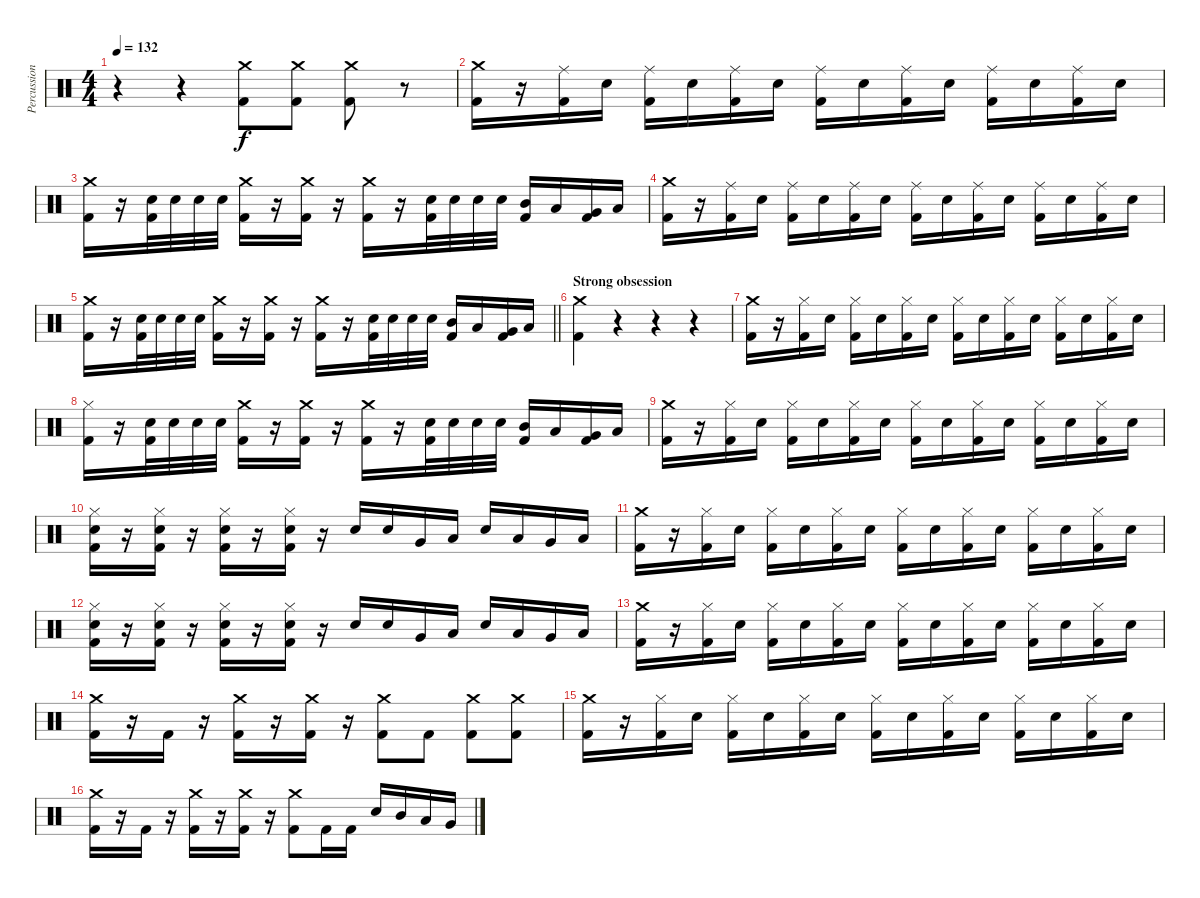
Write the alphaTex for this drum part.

\track ("Percussion" "Percussion") {instrument percussion}
\staff {score}
\articulation defaults
\ts (4 4)
\tempo 132
\clef neutral
\ks c
r.4{dy f} r.4 ("Crash medium (hit)" "Kick (hit) 2").8 ("Crash medium (hit)" "Kick (hit) 2").8 ("Crash medium (hit)" "Kick (hit) 2").8 r.8 |
("Crash medium (hit)" "Kick (hit) 2").16 r.16 ("Ride (middle)" "Kick (hit) 2").16 "Snare (hit) 2".16 ("Ride (middle)" "Kick (hit) 2").16 "Snare (hit) 2".16 ("Ride (middle)" "Kick (hit) 2").16 "Snare (hit) 2".16 ("Ride (middle)" "Kick (hit) 2").16 "Snare (hit) 2".16 ("Ride (middle)" "Kick (hit) 2").16 "Snare (hit) 2".16 ("Ride (middle)" "Kick (hit) 2").16 "Snare (hit) 2".16 ("Ride (middle)" "Kick (hit) 2").16 "Snare (hit) 2".16 |
("Crash medium (hit)" "Kick (hit) 2").16 r.16 ("Snare (hit) 2" "Kick (hit) 2").32 "Snare (hit) 2".32 "Snare (hit) 2".32 "Snare (hit) 2".32 ("Crash medium (hit)" "Kick (hit) 2").16 r.16 ("Crash medium (hit)" "Kick (hit) 2").16 r.16 ("Crash medium (hit)" "Kick (hit) 2").16 r.16 ("Snare (hit) 2" "Kick (hit) 2").32 "Snare (hit) 2".32 "Snare (hit) 2".32 "Snare (hit) 2".32 ("Mid Tom (hit)" "Kick (hit) 2").16 "Low Tom (hit)".16 ("Very Low Tom (hit)" "Kick (hit) 2").16 "Low Floor Tom (hit)".16 |
("Crash medium (hit)" "Kick (hit) 2").16 r.16 ("Ride (middle)" "Kick (hit) 2").16 "Snare (hit) 2".16 ("Ride (middle)" "Kick (hit) 2").16 "Snare (hit) 2".16 ("Ride (middle)" "Kick (hit) 2").16 "Snare (hit) 2".16 ("Ride (middle)" "Kick (hit) 2").16 "Snare (hit) 2".16 ("Ride (middle)" "Kick (hit) 2").16 "Snare (hit) 2".16 ("Ride (middle)" "Kick (hit) 2").16 "Snare (hit) 2".16 ("Ride (middle)" "Kick (hit) 2").16 "Snare (hit) 2".16 |
\barLineRight lightlight
("Crash medium (hit)" "Kick (hit) 2").16 r.16 ("Snare (hit) 2" "Kick (hit) 2").32 "Snare (hit) 2".32 "Snare (hit) 2".32 "Snare (hit) 2".32 ("Crash medium (hit)" "Kick (hit) 2").16 r.16 ("Crash medium (hit)" "Kick (hit) 2").16 r.16 ("Crash medium (hit)" "Kick (hit) 2").16 r.16 ("Snare (hit) 2" "Kick (hit) 2").32 "Snare (hit) 2".32 "Snare (hit) 2".32 "Snare (hit) 2".32 ("Mid Tom (hit)" "Kick (hit) 2").16 "Low Tom (hit)".16 ("Very Low Tom (hit)" "Kick (hit) 2").16 "Low Floor Tom (hit)".16 |
\section ("" "Strong obsession ")
("Crash medium (hit)" "Kick (hit) 2").4 r.4 r.4 r.4 |
("Crash medium (hit)" "Kick (hit) 2").16 r.16 ("Hi-Hat (closed)" "Kick (hit) 2").16 "Snare (hit) 2".16 ("Hi-Hat (closed)" "Kick (hit) 2").16 "Snare (hit) 2".16 ("Hi-Hat (closed)" "Kick (hit) 2").16 "Snare (hit) 2".16 ("Hi-Hat (closed)" "Kick (hit) 2").16 "Snare (hit) 2".16 ("Hi-Hat (closed)" "Kick (hit) 2").16 "Snare (hit) 2".16 ("Hi-Hat (closed)" "Kick (hit) 2").16 "Snare (hit) 2".16 ("Hi-Hat (closed)" "Kick (hit) 2").16 "Snare (hit) 2".16 |
("Hi-Hat (closed)" "Kick (hit) 2").16 r.16 ("Snare (hit) 2" "Kick (hit) 2").32 "Snare (hit) 2".32 "Snare (hit) 2".32 "Snare (hit) 2".32 ("Crash medium (hit)" "Kick (hit) 2").16 r.16 ("Crash medium (hit)" "Kick (hit) 2").16 r.16 ("Crash medium (hit)" "Kick (hit) 2").16 r.16 ("Snare (hit) 2" "Kick (hit) 2").32 "Snare (hit) 2".32 "Snare (hit) 2".32 "Snare (hit) 2".32 ("Mid Tom (hit)" "Kick (hit) 2").16 "Low Tom (hit)".16 ("Very Low Tom (hit)" "Kick (hit) 2").16 "Low Floor Tom (hit)".16 |
("Crash medium (hit)" "Kick (hit) 2").16 r.16 ("Hi-Hat (closed)" "Kick (hit) 2").16 "Snare (hit) 2".16 ("Hi-Hat (closed)" "Kick (hit) 2").16 "Snare (hit) 2".16 ("Hi-Hat (closed)" "Kick (hit) 2").16 "Snare (hit) 2".16 ("Hi-Hat (closed)" "Kick (hit) 2").16 "Snare (hit) 2".16 ("Hi-Hat (closed)" "Kick (hit) 2").16 "Snare (hit) 2".16 ("Hi-Hat (closed)" "Kick (hit) 2").16 "Snare (hit) 2".16 ("Hi-Hat (closed)" "Kick (hit) 2").16 "Snare (hit) 2".16 |
("Hi-Hat (closed)" "Snare (hit) 2" "Kick (hit) 2").16 r.16 ("Hi-Hat (closed)" "Snare (hit) 2" "Kick (hit) 2").16 r.16 ("Hi-Hat (closed)" "Snare (hit) 2" "Kick (hit) 2").16 r.16 ("Hi-Hat (closed)" "Snare (hit) 2" "Kick (hit) 2").16 r.16 "Snare (hit) 2".16 "Snare (hit) 2".16 "Very Low Tom (hit)".16 "Low Floor Tom (hit)".16 "Snare (hit) 2".16 "Low Tom (hit)".16 "Very Low Tom (hit)".16 "Low Floor Tom (hit)".16 |
("Crash medium (hit)" "Kick (hit) 2").16 r.16 ("Hi-Hat (closed)" "Kick (hit) 2").16 "Snare (hit) 2".16 ("Hi-Hat (closed)" "Kick (hit) 2").16 "Snare (hit) 2".16 ("Hi-Hat (closed)" "Kick (hit) 2").16 "Snare (hit) 2".16 ("Hi-Hat (closed)" "Kick (hit) 2").16 "Snare (hit) 2".16 ("Hi-Hat (closed)" "Kick (hit) 2").16 "Snare (hit) 2".16 ("Hi-Hat (closed)" "Kick (hit) 2").16 "Snare (hit) 2".16 ("Hi-Hat (closed)" "Kick (hit) 2").16 "Snare (hit) 2".16 |
("Hi-Hat (closed)" "Snare (hit) 2" "Kick (hit) 2").16 r.16 ("Hi-Hat (closed)" "Snare (hit) 2" "Kick (hit) 2").16 r.16 ("Hi-Hat (closed)" "Snare (hit) 2" "Kick (hit) 2").16 r.16 ("Hi-Hat (closed)" "Snare (hit) 2" "Kick (hit) 2").16 r.16 "Snare (hit) 2".16 "Snare (hit) 2".16 "Very Low Tom (hit)".16 "Low Floor Tom (hit)".16 "Snare (hit) 2".16 "Low Tom (hit)".16 "Very Low Tom (hit)".16 "Low Floor Tom (hit)".16 |
("Crash medium (hit)" "Kick (hit) 2").16 r.16 ("Hi-Hat (closed)" "Kick (hit) 2").16 "Snare (hit) 2".16 ("Hi-Hat (closed)" "Kick (hit) 2").16 "Snare (hit) 2".16 ("Hi-Hat (closed)" "Kick (hit) 2").16 "Snare (hit) 2".16 ("Hi-Hat (closed)" "Kick (hit) 2").16 "Snare (hit) 2".16 ("Hi-Hat (closed)" "Kick (hit) 2").16 "Snare (hit) 2".16 ("Hi-Hat (closed)" "Kick (hit) 2").16 "Snare (hit) 2".16 ("Hi-Hat (closed)" "Kick (hit) 2").16 "Snare (hit) 2".16 |
("Crash medium (hit)" "Kick (hit) 2").16 r.16 "Kick (hit) 2".16 r.16 ("Crash medium (hit)" "Kick (hit) 2").16 r.16 ("Crash medium (hit)" "Kick (hit) 2").16 r.16 ("Crash medium (hit)" "Kick (hit) 2").8 "Kick (hit) 2".8 ("Crash medium (hit)" "Kick (hit) 2").8 ("Crash medium (hit)" "Kick (hit) 2").8 |
("Crash medium (hit)" "Kick (hit) 2").16 r.16 ("Hi-Hat (closed)" "Kick (hit) 2").16 "Snare (hit) 2".16 ("Hi-Hat (closed)" "Kick (hit) 2").16 "Snare (hit) 2".16 ("Hi-Hat (closed)" "Kick (hit) 2").16 "Snare (hit) 2".16 ("Hi-Hat (closed)" "Kick (hit) 2").16 "Snare (hit) 2".16 ("Hi-Hat (closed)" "Kick (hit) 2").16 "Snare (hit) 2".16 ("Hi-Hat (closed)" "Kick (hit) 2").16 "Snare (hit) 2".16 ("Hi-Hat (closed)" "Kick (hit) 2").16 "Snare (hit) 2".16 |
("Crash medium (hit)" "Kick (hit) 2").16 r.16 "Kick (hit) 2".16 r.16 ("Crash medium (hit)" "Kick (hit) 2").16 r.16 ("Crash medium (hit)" "Kick (hit) 2").16 r.16 ("Crash medium (hit)" "Kick (hit) 2").8 "Kick (hit) 2".16 "Kick (hit) 2".16 "Snare (hit) 2".16 "Mid Tom (hit)".16 "Low Tom (hit)".16 "Very Low Tom (hit)".16
